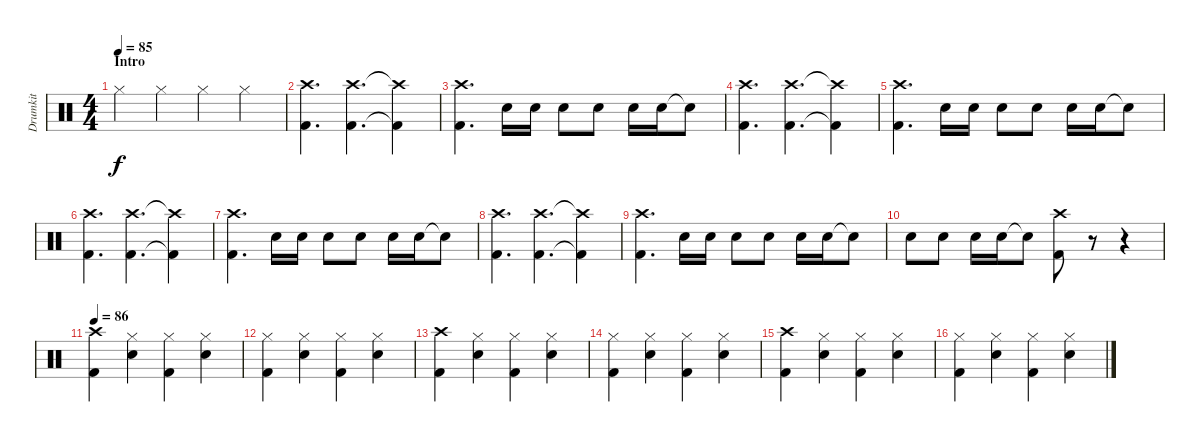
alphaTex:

\track ("Drumkit" "Drumkit") {instrument percussion}
\staff {score}
\articulation defaults
\ts (4 4)
\section ("" "Intro")
\tempo 85
\clef neutral
\ks c "Hi-Hat (closed)".4{dy f} "Hi-Hat (closed)".4 "Hi-Hat (closed)".4 "Hi-Hat (closed)".4
|
("Kick (hit) 2" "Crash high (hit)").4{d} ("Kick (hit) 2" "Crash high (hit)").4{d} ("Kick (hit) 2"{t} "Crash high (hit)"{t}).4 |
("Kick (hit) 2" "Crash high (hit)").4{d} "Snare (hit) 2".16 "Snare (hit) 2".16 "Snare (hit) 2".8 "Snare (hit) 2".8 "Snare (hit) 2".16 "Snare (hit) 2".16 "Snare (hit) 2"{t}.8 |
("Kick (hit) 2" "Crash high (hit)").4{d} ("Kick (hit) 2" "Crash high (hit)").4{d} ("Kick (hit) 2"{t} "Crash high (hit)"{t}).4 |
("Kick (hit) 2" "Crash high (hit)").4{d} "Snare (hit) 2".16 "Snare (hit) 2".16 "Snare (hit) 2".8 "Snare (hit) 2".8 "Snare (hit) 2".16 "Snare (hit) 2".16 "Snare (hit) 2"{t}.8 |
("Kick (hit) 2" "Crash high (hit)").4{d} ("Kick (hit) 2" "Crash high (hit)").4{d} ("Kick (hit) 2"{t} "Crash high (hit)"{t}).4 |
("Kick (hit) 2" "Crash high (hit)").4{d} "Snare (hit) 2".16 "Snare (hit) 2".16 "Snare (hit) 2".8 "Snare (hit) 2".8 "Snare (hit) 2".16 "Snare (hit) 2".16 "Snare (hit) 2"{t}.8 |
("Kick (hit) 2" "Crash high (hit)").4{d} ("Kick (hit) 2" "Crash high (hit)").4{d} ("Kick (hit) 2"{t} "Crash high (hit)"{t}).4 |
("Kick (hit) 2" "Crash high (hit)").4{d} "Snare (hit) 2".16 "Snare (hit) 2".16 "Snare (hit) 2".8 "Snare (hit) 2".8 "Snare (hit) 2".16 "Snare (hit) 2".16 "Snare (hit) 2"{t}.8 |
"Snare (hit) 2".8 "Snare (hit) 2".8 "Snare (hit) 2".16 "Snare (hit) 2".16 "Snare (hit) 2"{t}.8 ("Crash high (hit)" "Kick (hit) 2").8 r.8 r.4 |
\tempo 86
("Kick (hit) 2" "Crash high (hit)").4 ("Snare (hit) 2" "Hi-Hat (closed)").4 ("Kick (hit) 2" "Hi-Hat (closed)").4 ("Snare (hit) 2" "Hi-Hat (closed)").4 |
("Kick (hit) 2" "Hi-Hat (closed)").4 ("Snare (hit) 2" "Hi-Hat (closed)").4 ("Kick (hit) 2" "Hi-Hat (closed)").4 ("Snare (hit) 2" "Hi-Hat (closed)").4 |
("Kick (hit) 2" "Crash high (hit)").4 ("Snare (hit) 2" "Hi-Hat (closed)").4 ("Kick (hit) 2" "Hi-Hat (closed)").4 ("Snare (hit) 2" "Hi-Hat (closed)").4 |
("Kick (hit) 2" "Hi-Hat (closed)").4 ("Snare (hit) 2" "Hi-Hat (closed)").4 ("Kick (hit) 2" "Hi-Hat (closed)").4 ("Snare (hit) 2" "Hi-Hat (closed)").4 |
("Kick (hit) 2" "Crash high (hit)").4 ("Snare (hit) 2" "Hi-Hat (closed)").4 ("Kick (hit) 2" "Hi-Hat (closed)").4 ("Snare (hit) 2" "Hi-Hat (closed)").4 |
("Kick (hit) 2" "Hi-Hat (closed)").4 ("Snare (hit) 2" "Hi-Hat (closed)").4 ("Kick (hit) 2" "Hi-Hat (closed)").4 ("Snare (hit) 2" "Hi-Hat (closed)").4
